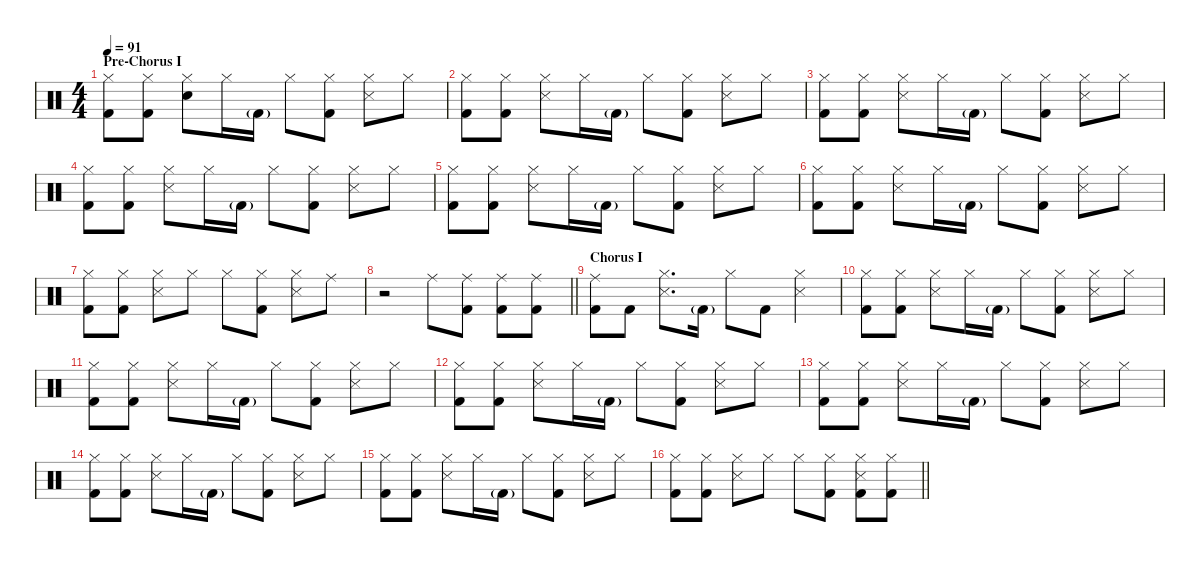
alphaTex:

\defaultSystemsLayout 4
\hideDynamics
\bracketExtendMode nobrackets
\singleTrackTrackNamePolicy hidden
\multiTrackTrackNamePolicy hidden
\otherSystemsTrackNameOrientation horizontal
\track ("Jose Pasillas" "drm.") {defaultSystemsLayout 4 instrument percussion}
\staff {score}
\articulation defaults
\ts (4 4)
\section ("" "Pre-Chorus I")
\tempo 91
\clef neutral
\ks c
("Hi-Hat (closed)" "Kick (hit) 2").8{dy f beam Down} ("Hi-Hat (closed)" "Kick (hit) 2").8{beam Down} ("Hi-Hat (closed)" "Snare (hit) 2").8{beam Down} "Hi-Hat (closed)".16{beam Down} "Kick (hit) 2"{g}.16{dy mf beam Down} "Hi-Hat (closed)".8{dy f beam Down} ("Hi-Hat (closed)" "Kick (hit) 2").8{beam Down} ("Hi-Hat (closed)" "Snare (side stick) 3").8{beam Down} "Hi-Hat (closed)".8{beam Down} |
("Hi-Hat (closed)" "Kick (hit) 2").8{beam Down} ("Hi-Hat (closed)" "Kick (hit) 2").8{beam Down} ("Hi-Hat (closed)" "Snare (side stick) 3").8{beam Down} "Hi-Hat (closed)".16{beam Down} "Kick (hit) 2"{g}.16{dy mf beam Down} "Hi-Hat (closed)".8{dy f beam Down} ("Hi-Hat (closed)" "Kick (hit) 2").8{beam Down} ("Hi-Hat (closed)" "Snare (side stick) 3").8{beam Down} "Hi-Hat (closed)".8{beam Down} |
("Hi-Hat (closed)" "Kick (hit) 2").8{beam Down} ("Hi-Hat (closed)" "Kick (hit) 2").8{beam Down} ("Hi-Hat (closed)" "Snare (side stick) 3").8{beam Down} "Hi-Hat (closed)".16{beam Down} "Kick (hit) 2"{g}.16{dy mf beam Down} "Hi-Hat (closed)".8{dy f beam Down} ("Hi-Hat (closed)" "Kick (hit) 2").8{beam Down} ("Hi-Hat (closed)" "Snare (side stick) 3").8{beam Down} "Hi-Hat (closed)".8{beam Down} |
("Hi-Hat (closed)" "Kick (hit) 2").8{beam Down} ("Hi-Hat (closed)" "Kick (hit) 2").8{beam Down} ("Hi-Hat (closed)" "Snare (side stick) 3").8{beam Down} "Hi-Hat (closed)".16{beam Down} "Kick (hit) 2"{g}.16{dy mf beam Down} "Hi-Hat (closed)".8{dy f beam Down} ("Hi-Hat (closed)" "Kick (hit) 2").8{beam Down} ("Hi-Hat (closed)" "Snare (side stick) 3").8{beam Down} "Hi-Hat (closed)".8{beam Down} |
("Hi-Hat (closed)" "Kick (hit) 2").8{beam Down} ("Hi-Hat (closed)" "Kick (hit) 2").8{beam Down} ("Hi-Hat (closed)" "Snare (side stick) 3").8{beam Down} "Hi-Hat (closed)".16{beam Down} "Kick (hit) 2"{g}.16{dy mf beam Down} "Hi-Hat (closed)".8{dy f beam Down} ("Hi-Hat (closed)" "Kick (hit) 2").8{beam Down} ("Hi-Hat (closed)" "Snare (side stick) 3").8{beam Down} "Hi-Hat (closed)".8{beam Down} |
("Hi-Hat (closed)" "Kick (hit) 2").8{beam Down} ("Hi-Hat (closed)" "Kick (hit) 2").8{beam Down} ("Hi-Hat (closed)" "Snare (side stick) 3").8{beam Down} "Hi-Hat (closed)".16{beam Down} "Kick (hit) 2"{g}.16{dy mf beam Down} "Hi-Hat (closed)".8{dy f beam Down} ("Hi-Hat (closed)" "Kick (hit) 2").8{beam Down} ("Hi-Hat (closed)" "Snare (side stick) 3").8{beam Down} "Hi-Hat (closed)".8{beam Down} |
("Hi-Hat (closed)" "Kick (hit) 2").8{beam Down} ("Hi-Hat (closed)" "Kick (hit) 2").8{beam Down} ("Hi-Hat (closed)" "Snare (side stick) 3").8{beam Down} "Hi-Hat (closed)".8{beam Down} "Hi-Hat (closed)".8{beam Down} ("Hi-Hat (closed)" "Kick (hit) 2").8{beam Down} ("Hi-Hat (closed)" "Snare (side stick) 3").8{beam Down} "Ride (middle)".8{beam Down} |
\barLineRight lightlight
r.2{beam Down} "Ride (middle)".8{beam Down} ("Ride (middle)" "Kick (hit) 2").8{beam Down} ("Ride (middle)" "Kick (hit) 2").8{beam Down} ("Ride (middle)" "Kick (hit) 2").8{beam Down} |
\section ("" "Chorus I")
("Ride (middle)" "Kick (hit) 2").8{beam Down} "Kick (hit) 2".8{beam Down} ("Hi-Hat (closed)" "Snare (side stick) 3").8{d beam Down} "Kick (hit) 2"{g}.16{dy mf beam Down} "Hi-Hat (closed)".8{dy f beam Down} "Kick (hit) 2".8{beam Down} ("Hi-Hat (closed)" "Snare (side stick) 3").4{beam Down} |
("Hi-Hat (closed)" "Kick (hit) 2").8{beam Down} ("Hi-Hat (closed)" "Kick (hit) 2").8{beam Down} ("Hi-Hat (closed)" "Snare (side stick) 3").8{beam Down} "Hi-Hat (closed)".16{beam Down} "Kick (hit) 2"{g}.16{dy mf beam Down} "Hi-Hat (closed)".8{dy f beam Down} ("Hi-Hat (closed)" "Kick (hit) 2").8{beam Down} ("Hi-Hat (closed)" "Snare (side stick) 3").8{beam Down} "Hi-Hat (closed)".8{beam Down} |
("Hi-Hat (closed)" "Kick (hit) 2").8{beam Down} ("Hi-Hat (closed)" "Kick (hit) 2").8{beam Down} ("Hi-Hat (closed)" "Snare (side stick) 3").8{beam Down} "Hi-Hat (closed)".16{beam Down} "Kick (hit) 2"{g}.16{dy mf beam Down} "Hi-Hat (closed)".8{dy f beam Down} ("Hi-Hat (closed)" "Kick (hit) 2").8{beam Down} ("Hi-Hat (closed)" "Snare (side stick) 3").8{beam Down} "Hi-Hat (closed)".8{beam Down} |
("Hi-Hat (closed)" "Kick (hit) 2").8{beam Down} ("Hi-Hat (closed)" "Kick (hit) 2").8{beam Down} ("Hi-Hat (closed)" "Snare (side stick) 3").8{beam Down} "Hi-Hat (closed)".16{beam Down} "Kick (hit) 2"{g}.16{dy mf beam Down} "Hi-Hat (closed)".8{dy f beam Down} ("Hi-Hat (closed)" "Kick (hit) 2").8{beam Down} ("Hi-Hat (closed)" "Snare (side stick) 3").8{beam Down} "Hi-Hat (closed)".8{beam Down} |
("Hi-Hat (closed)" "Kick (hit) 2").8{beam Down} ("Hi-Hat (closed)" "Kick (hit) 2").8{beam Down} ("Hi-Hat (closed)" "Snare (side stick) 3").8{beam Down} "Hi-Hat (closed)".16{beam Down} "Kick (hit) 2"{g}.16{dy mf beam Down} "Hi-Hat (closed)".8{dy f beam Down} ("Hi-Hat (closed)" "Kick (hit) 2").8{beam Down} ("Hi-Hat (closed)" "Snare (side stick) 3").8{beam Down} "Hi-Hat (closed)".8{beam Down} |
("Hi-Hat (closed)" "Kick (hit) 2").8{beam Down} ("Hi-Hat (closed)" "Kick (hit) 2").8{beam Down} ("Hi-Hat (closed)" "Snare (side stick) 3").8{beam Down} "Hi-Hat (closed)".16{beam Down} "Kick (hit) 2"{g}.16{dy mf beam Down} "Hi-Hat (closed)".8{dy f beam Down} ("Hi-Hat (closed)" "Kick (hit) 2").8{beam Down} ("Hi-Hat (closed)" "Snare (side stick) 3").8{beam Down} "Hi-Hat (closed)".8{beam Down} |
("Hi-Hat (closed)" "Kick (hit) 2").8{beam Down} ("Hi-Hat (closed)" "Kick (hit) 2").8{beam Down} ("Hi-Hat (closed)" "Snare (side stick) 3").8{beam Down} "Hi-Hat (closed)".16{beam Down} "Kick (hit) 2"{g}.16{dy mf beam Down} "Hi-Hat (closed)".8{dy f beam Down} ("Hi-Hat (closed)" "Kick (hit) 2").8{beam Down} ("Hi-Hat (closed)" "Snare (side stick) 3").8{beam Down} "Hi-Hat (closed)".8{beam Down} |
\barLineRight lightlight
("Hi-Hat (closed)" "Kick (hit) 2").8{beam Down} ("Hi-Hat (closed)" "Kick (hit) 2").8{beam Down} ("Hi-Hat (closed)" "Snare (side stick) 3").8{beam Down} "Hi-Hat (closed)".8{beam Down} "Hi-Hat (closed)".8{beam Down} ("Hi-Hat (closed)" "Kick (hit) 2").8{beam Down} ("Hi-Hat (closed)" "Snare (side stick) 3" "Kick (hit) 2").8{beam Down} ("Hi-Hat (closed)" "Kick (hit) 2").8{beam Down}
